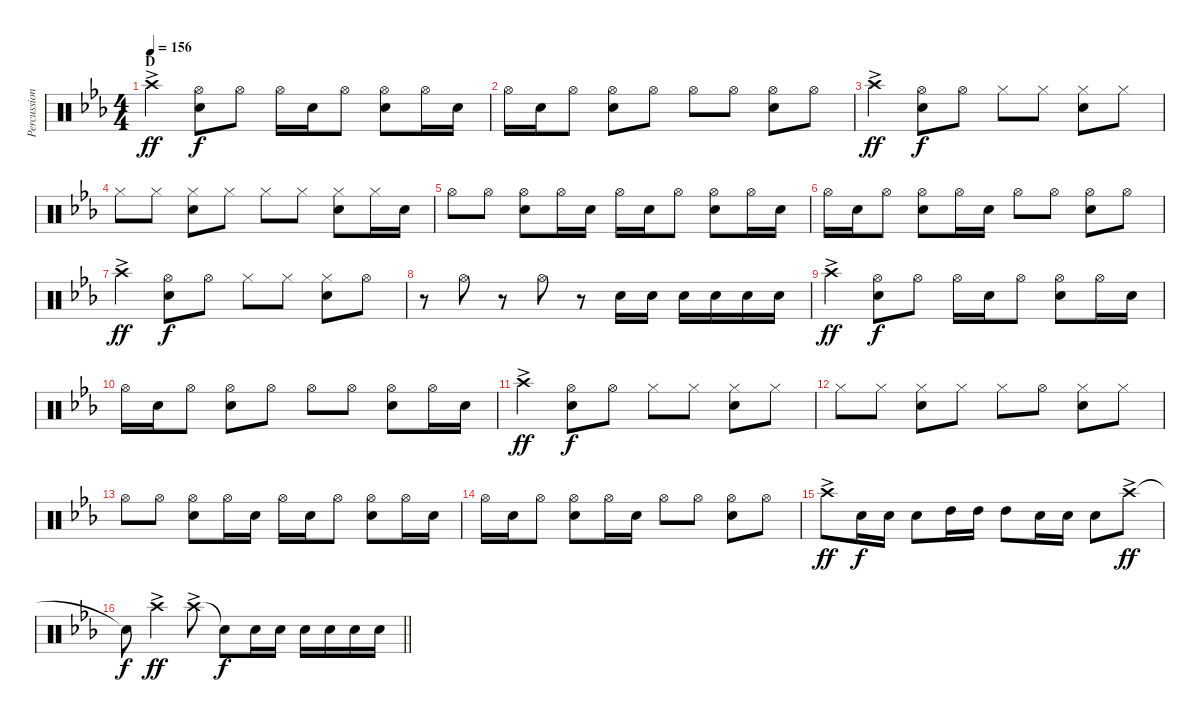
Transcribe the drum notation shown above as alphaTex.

\track ("Percussion hand" "Percussion") {instrument percussion}
\staff {score}
\articulation defaults
\ts (4 4)
\section ("" "D")
\tempo 156
\clef neutral
\ks eb "Crash high (hit)"{ac}.4{dy ff}
("Hi-Hat (open)" "Snare (hit) 2").8{dy f} "Hi-Hat (open)".8 "Hi-Hat (open)".16 "Snare (hit) 2".16 "Hi-Hat (open)".8 ("Hi-Hat (open)" "Snare (hit) 2").8 "Hi-Hat (open)".16 "Snare (hit) 2".16 |
"Hi-Hat (open)".16 "Snare (hit) 2".16 "Hi-Hat (open)".8 ("Hi-Hat (open)" "Snare (hit) 2").8 "Hi-Hat (open)".8 "Hi-Hat (open)".8 "Hi-Hat (open)".8 ("Hi-Hat (open)" "Snare (hit) 2").8 "Hi-Hat (open)".8 |
"Crash high (hit)"{ac}.4{dy ff} ("Hi-Hat (open)" "Snare (hit) 2").8{dy f} "Hi-Hat (open)".8 "Hi-Hat (closed)".8 "Hi-Hat (closed)".8 ("Hi-Hat (closed)" "Snare (hit) 2").8 "Hi-Hat (closed)".8 |
"Hi-Hat (closed)".8 "Hi-Hat (closed)".8 ("Hi-Hat (closed)" "Snare (hit) 2").8 "Hi-Hat (closed)".8 "Hi-Hat (closed)".8 "Hi-Hat (closed)".8 ("Hi-Hat (closed)" "Snare (hit) 2").8 "Hi-Hat (closed)".16 "Snare (hit) 2".16 |
"Hi-Hat (open)".8 "Hi-Hat (open)".8 ("Hi-Hat (open)" "Snare (hit) 2").8 "Hi-Hat (open)".16 "Snare (hit) 2".16 "Hi-Hat (open)".16 "Snare (hit) 2".16 "Hi-Hat (open)".8 ("Hi-Hat (open)" "Snare (hit) 2").8 "Hi-Hat (open)".16 "Snare (hit) 2".16 |
"Hi-Hat (open)".16 "Snare (hit) 2".16 "Hi-Hat (open)".8 ("Hi-Hat (open)" "Snare (hit) 2").8 "Hi-Hat (open)".16 "Snare (hit) 2".16 "Hi-Hat (open)".8 "Hi-Hat (open)".8 ("Hi-Hat (open)" "Snare (hit) 2").8 "Hi-Hat (open)".8 |
"Crash high (hit)"{ac}.4{dy ff} ("Hi-Hat (open)" "Snare (hit) 2").8{dy f} "Hi-Hat (open)".8 "Hi-Hat (closed)".8 "Hi-Hat (closed)".8 ("Hi-Hat (closed)" "Snare (hit) 2").8 "Hi-Hat (open)".8 |
r.8 "Hi-Hat (open)".8 r.8 "Hi-Hat (open)".8 r.8 "Snare (hit) 2".16 "Snare (hit) 2".16 "Snare (hit) 2".16 "Snare (hit) 2".16 "Snare (hit) 2".16 "Snare (hit) 2".16 |
"Crash high (hit)"{ac}.4{dy ff} ("Hi-Hat (open)" "Snare (hit) 2").8{dy f} "Hi-Hat (open)".8 "Hi-Hat (open)".16 "Snare (hit) 2".16 "Hi-Hat (open)".8 ("Hi-Hat (open)" "Snare (hit) 2").8 "Hi-Hat (open)".16 "Snare (hit) 2".16 |
"Hi-Hat (open)".16 "Snare (hit) 2".16 "Hi-Hat (open)".8 ("Hi-Hat (open)" "Snare (hit) 2").8 "Hi-Hat (open)".8 "Hi-Hat (open)".8 "Hi-Hat (open)".8 ("Hi-Hat (open)" "Snare (hit) 2").8 "Hi-Hat (open)".16 "Snare (hit) 2".16 |
"Crash high (hit)"{ac}.4{dy ff} ("Hi-Hat (open)" "Snare (hit) 2").8{dy f} "Hi-Hat (open)".8 "Hi-Hat (closed)".8 "Hi-Hat (closed)".8 ("Hi-Hat (closed)" "Snare (hit) 2").8 "Hi-Hat (closed)".8 |
"Hi-Hat (closed)".8 "Hi-Hat (closed)".8 ("Hi-Hat (closed)" "Snare (hit) 2").8 "Hi-Hat (closed)".8 "Hi-Hat (closed)".8 "Hi-Hat (open)".8 ("Hi-Hat (closed)" "Snare (hit) 2").8 "Hi-Hat (closed)".8 |
"Hi-Hat (open)".8 "Hi-Hat (open)".8 ("Hi-Hat (open)" "Snare (hit) 2").8 "Hi-Hat (open)".16 "Snare (hit) 2".16 "Hi-Hat (open)".16 "Snare (hit) 2".16 "Hi-Hat (open)".8 ("Hi-Hat (open)" "Snare (hit) 2").8 "Hi-Hat (open)".16 "Snare (hit) 2".16 |
"Hi-Hat (open)".16 "Snare (hit) 2".16 "Hi-Hat (open)".8 ("Hi-Hat (open)" "Snare (hit) 2").8 "Hi-Hat (open)".16 "Snare (hit) 2".16 "Hi-Hat (open)".8 "Hi-Hat (open)".8 ("Hi-Hat (open)" "Snare (hit) 2").8 "Hi-Hat (open)".8 |
"Crash high (hit)"{ac}.8{dy ff} "Snare (hit) 2".16{dy f} "Snare (hit) 2".16 "Snare (hit) 2".8 "High Tom (hit)".16 "High Tom (hit)".16 "High Tom (hit)".8 "Snare (hit) 2".16 "Snare (hit) 2".16 "Snare (hit) 2".8 "Crash high (hit)"{ac}.8{dy ff} |
\barLineRight lightlight "Snare (hit)"{t}.8{dy f} "Crash high (hit)"{ac}.4{dy ff} "Crash high (hit)"{ac}.8 "Snare (hit)"{t}.8{dy f} "Snare (hit) 2".16 "Snare (hit) 2".16 "Snare (hit) 2".16 "Snare (hit) 2".16 "Snare (hit) 2".16 "Snare (hit) 2".16
